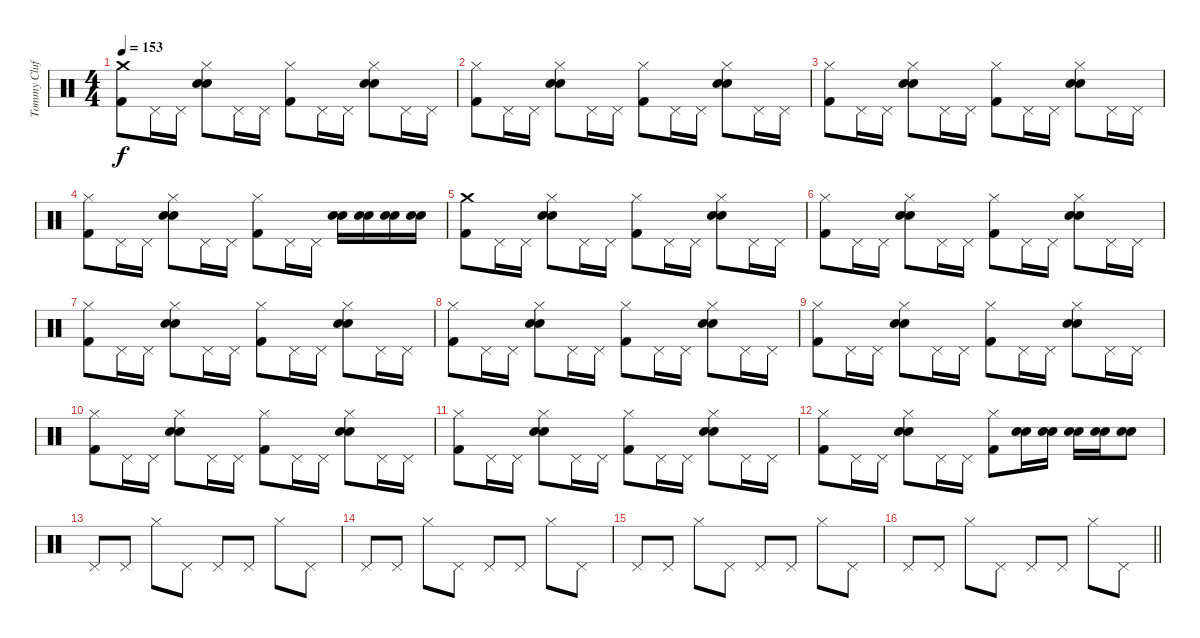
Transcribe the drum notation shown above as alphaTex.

\track ("Tommy Clufetos" "Tommy Cluf") {instrument percussion}
\staff {score}
\articulation defaults
\ts (4 4)
\tempo 153
\clef neutral
\ks c
("Crash medium (hit)" "Kick (hit) 2").8{dy f} "Pedal Hi-Hat (hit)".16 "Pedal Hi-Hat (hit)".16 ("Hi-Hat (closed)" "Electric Snare (hit)" "Snare (hit) 2").8 "Pedal Hi-Hat (hit)".16 "Pedal Hi-Hat (hit)".16 ("Hi-Hat (closed)" "Kick (hit) 2").8 "Pedal Hi-Hat (hit)".16 "Pedal Hi-Hat (hit)".16 ("Hi-Hat (closed)" "Electric Snare (hit)" "Snare (hit) 2").8 "Pedal Hi-Hat (hit)".16 "Pedal Hi-Hat (hit)".16 |
("Hi-Hat (closed)" "Kick (hit) 2").8 "Pedal Hi-Hat (hit)".16 "Pedal Hi-Hat (hit)".16 ("Hi-Hat (closed)" "Electric Snare (hit)" "Snare (hit) 2").8 "Pedal Hi-Hat (hit)".16 "Pedal Hi-Hat (hit)".16 ("Hi-Hat (closed)" "Kick (hit) 2").8 "Pedal Hi-Hat (hit)".16 "Pedal Hi-Hat (hit)".16 ("Hi-Hat (closed)" "Electric Snare (hit)" "Snare (hit) 2").8 "Pedal Hi-Hat (hit)".16 "Pedal Hi-Hat (hit)".16 |
("Hi-Hat (closed)" "Kick (hit) 2").8 "Pedal Hi-Hat (hit)".16 "Pedal Hi-Hat (hit)".16 ("Hi-Hat (closed)" "Electric Snare (hit)" "Snare (hit) 2").8 "Pedal Hi-Hat (hit)".16 "Pedal Hi-Hat (hit)".16 ("Hi-Hat (closed)" "Kick (hit) 2").8 "Pedal Hi-Hat (hit)".16 "Pedal Hi-Hat (hit)".16 ("Hi-Hat (closed)" "Electric Snare (hit)" "Snare (hit) 2").8 "Pedal Hi-Hat (hit)".16 "Pedal Hi-Hat (hit)".16 |
("Hi-Hat (closed)" "Kick (hit) 2").8 "Pedal Hi-Hat (hit)".16 "Pedal Hi-Hat (hit)".16 ("Hi-Hat (closed)" "Electric Snare (hit)" "Snare (hit) 2").8 "Pedal Hi-Hat (hit)".16 "Pedal Hi-Hat (hit)".16 ("Hi-Hat (closed)" "Kick (hit) 2").8 "Pedal Hi-Hat (hit)".16 "Pedal Hi-Hat (hit)".16 ("Electric Snare (hit)" "Snare (hit) 2").16 ("Electric Snare (hit)" "Snare (hit) 2").16 ("Electric Snare (hit)" "Snare (hit) 2").16 ("Electric Snare (hit)" "Snare (hit) 2").16 |
("Crash medium (hit)" "Kick (hit) 2").8 "Pedal Hi-Hat (hit)".16 "Pedal Hi-Hat (hit)".16 ("Hi-Hat (closed)" "Electric Snare (hit)" "Snare (hit) 2").8 "Pedal Hi-Hat (hit)".16 "Pedal Hi-Hat (hit)".16 ("Hi-Hat (closed)" "Kick (hit) 2").8 "Pedal Hi-Hat (hit)".16 "Pedal Hi-Hat (hit)".16 ("Hi-Hat (closed)" "Electric Snare (hit)" "Snare (hit) 2").8 "Pedal Hi-Hat (hit)".16 "Pedal Hi-Hat (hit)".16 |
("Hi-Hat (closed)" "Kick (hit) 2").8 "Pedal Hi-Hat (hit)".16 "Pedal Hi-Hat (hit)".16 ("Hi-Hat (closed)" "Electric Snare (hit)" "Snare (hit) 2").8 "Pedal Hi-Hat (hit)".16 "Pedal Hi-Hat (hit)".16 ("Hi-Hat (closed)" "Kick (hit) 2").8 "Pedal Hi-Hat (hit)".16 "Pedal Hi-Hat (hit)".16 ("Hi-Hat (closed)" "Electric Snare (hit)" "Snare (hit) 2").8 "Pedal Hi-Hat (hit)".16 "Pedal Hi-Hat (hit)".16 |
("Hi-Hat (closed)" "Kick (hit) 2").8 "Pedal Hi-Hat (hit)".16 "Pedal Hi-Hat (hit)".16 ("Hi-Hat (closed)" "Electric Snare (hit)" "Snare (hit) 2").8 "Pedal Hi-Hat (hit)".16 "Pedal Hi-Hat (hit)".16 ("Hi-Hat (closed)" "Kick (hit) 2").8 "Pedal Hi-Hat (hit)".16 "Pedal Hi-Hat (hit)".16 ("Hi-Hat (closed)" "Electric Snare (hit)" "Snare (hit) 2").8 "Pedal Hi-Hat (hit)".16 "Pedal Hi-Hat (hit)".16 |
("Hi-Hat (closed)" "Kick (hit) 2").8 "Pedal Hi-Hat (hit)".16 "Pedal Hi-Hat (hit)".16 ("Hi-Hat (closed)" "Electric Snare (hit)" "Snare (hit) 2").8 "Pedal Hi-Hat (hit)".16 "Pedal Hi-Hat (hit)".16 ("Hi-Hat (closed)" "Kick (hit) 2").8 "Pedal Hi-Hat (hit)".16 "Pedal Hi-Hat (hit)".16 ("Hi-Hat (closed)" "Electric Snare (hit)" "Snare (hit) 2").8 "Pedal Hi-Hat (hit)".16 "Pedal Hi-Hat (hit)".16 |
("Hi-Hat (closed)" "Kick (hit) 2").8 "Pedal Hi-Hat (hit)".16 "Pedal Hi-Hat (hit)".16 ("Hi-Hat (closed)" "Electric Snare (hit)" "Snare (hit) 2").8 "Pedal Hi-Hat (hit)".16 "Pedal Hi-Hat (hit)".16 ("Hi-Hat (closed)" "Kick (hit) 2").8 "Pedal Hi-Hat (hit)".16 "Pedal Hi-Hat (hit)".16 ("Hi-Hat (closed)" "Electric Snare (hit)" "Snare (hit) 2").8 "Pedal Hi-Hat (hit)".16 "Pedal Hi-Hat (hit)".16 |
("Hi-Hat (closed)" "Kick (hit) 2").8 "Pedal Hi-Hat (hit)".16 "Pedal Hi-Hat (hit)".16 ("Hi-Hat (closed)" "Electric Snare (hit)" "Snare (hit) 2").8 "Pedal Hi-Hat (hit)".16 "Pedal Hi-Hat (hit)".16 ("Hi-Hat (closed)" "Kick (hit) 2").8 "Pedal Hi-Hat (hit)".16 "Pedal Hi-Hat (hit)".16 ("Hi-Hat (closed)" "Electric Snare (hit)" "Snare (hit) 2").8 "Pedal Hi-Hat (hit)".16 "Pedal Hi-Hat (hit)".16 |
("Hi-Hat (closed)" "Kick (hit) 2").8 "Pedal Hi-Hat (hit)".16 "Pedal Hi-Hat (hit)".16 ("Hi-Hat (closed)" "Electric Snare (hit)" "Snare (hit) 2").8 "Pedal Hi-Hat (hit)".16 "Pedal Hi-Hat (hit)".16 ("Hi-Hat (closed)" "Kick (hit) 2").8 "Pedal Hi-Hat (hit)".16 "Pedal Hi-Hat (hit)".16 ("Hi-Hat (closed)" "Electric Snare (hit)" "Snare (hit) 2").8 "Pedal Hi-Hat (hit)".16 "Pedal Hi-Hat (hit)".16 |
("Hi-Hat (closed)" "Kick (hit) 2").8 "Pedal Hi-Hat (hit)".16 "Pedal Hi-Hat (hit)".16 ("Hi-Hat (closed)" "Electric Snare (hit)" "Snare (hit) 2").8 "Pedal Hi-Hat (hit)".16 "Pedal Hi-Hat (hit)".16 ("Hi-Hat (closed)" "Kick (hit) 2").8 ("Electric Snare (hit)" "Snare (hit) 2").16 ("Electric Snare (hit)" "Snare (hit) 2").16 ("Electric Snare (hit)" "Snare (hit) 2").16 ("Electric Snare (hit)" "Snare (hit) 2").16 ("Electric Snare (hit)" "Snare (hit) 2").8 |
"Pedal Hi-Hat (hit)".8 "Pedal Hi-Hat (hit)".8 "Hi-Hat (closed)".8 "Pedal Hi-Hat (hit)".8 "Pedal Hi-Hat (hit)".8 "Pedal Hi-Hat (hit)".8 "Hi-Hat (closed)".8 "Pedal Hi-Hat (hit)".8 |
"Pedal Hi-Hat (hit)".8 "Pedal Hi-Hat (hit)".8 "Hi-Hat (closed)".8 "Pedal Hi-Hat (hit)".8 "Pedal Hi-Hat (hit)".8 "Pedal Hi-Hat (hit)".8 "Hi-Hat (closed)".8 "Pedal Hi-Hat (hit)".8 |
"Pedal Hi-Hat (hit)".8 "Pedal Hi-Hat (hit)".8 "Hi-Hat (closed)".8 "Pedal Hi-Hat (hit)".8 "Pedal Hi-Hat (hit)".8 "Pedal Hi-Hat (hit)".8 "Hi-Hat (closed)".8 "Pedal Hi-Hat (hit)".8 |
\barLineRight lightlight "Pedal Hi-Hat (hit)".8 "Pedal Hi-Hat (hit)".8 "Hi-Hat (closed)".8 "Pedal Hi-Hat (hit)".8 "Pedal Hi-Hat (hit)".8 "Pedal Hi-Hat (hit)".8 "Hi-Hat (closed)".8 "Pedal Hi-Hat (hit)".8
